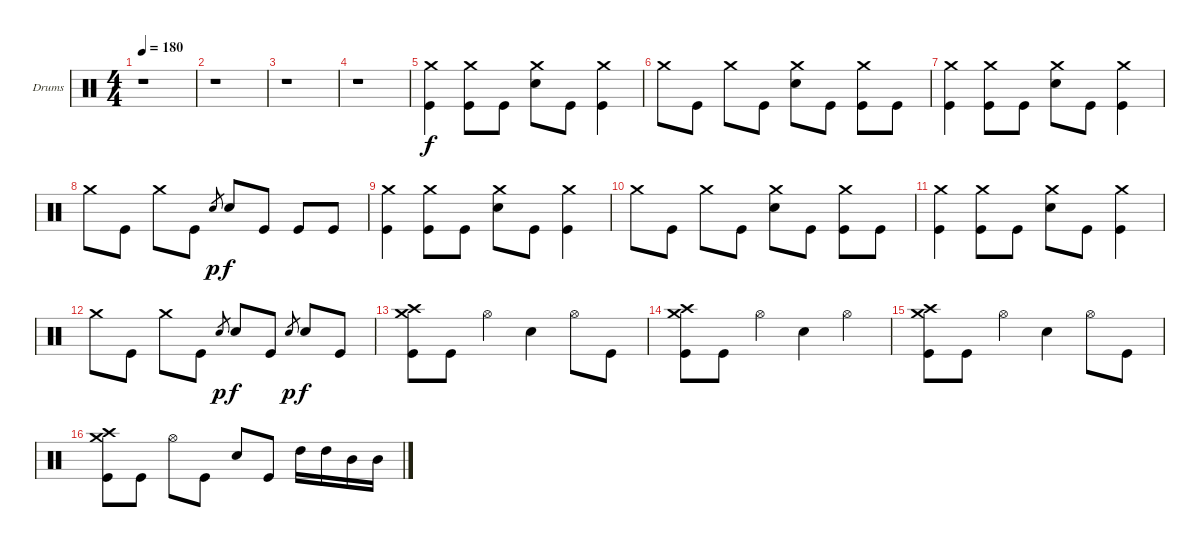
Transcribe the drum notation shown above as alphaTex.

\defaultSystemsLayout 4
\bracketExtendMode groupsimilarinstruments
\firstSystemTrackNameOrientation horizontal
\otherSystemsTrackNameOrientation horizontal
\track ("Барабаны" "Drums") {instrument percussion}
\staff {score}
\articulation defaults
\ts (4 4)
\tempo 180
\clef neutral
\scale
0.474178
\ks c
r.1{dy f} |
\scale
0.262911 r.1 |
\scale
0.262911 r.1 |
\scale
0.333333 r.1 |
\scale
0.333333 ("Crash medium (hit)" "Kick (hit)").4 ("Crash medium (hit)" "Kick (hit)").8 "Kick (hit)".8 ("Crash medium (hit)" "Snare (hit) 2").8 "Kick (hit)".8 ("Crash medium (hit)" "Kick (hit)").4 |
\scale
0.333333 "Crash medium (hit)".8 "Kick (hit)".8 "Crash medium (hit)".8 "Kick (hit)".8 ("Crash medium (hit)" "Snare (hit) 2").8 "Kick (hit)".8 ("Crash medium (hit)" "Kick (hit)").8 "Kick (hit)".8 |
\scale
0.333333 ("Crash medium (hit)" "Kick (hit)").4 ("Crash medium (hit)" "Kick (hit)").8 "Kick (hit)".8 ("Crash medium (hit)" "Snare (hit) 2").8 "Kick (hit)".8 ("Crash medium (hit)" "Kick (hit)").4 |
\scale
0.333333 "Crash medium (hit)".8 "Kick (hit)".8 "Crash medium (hit)".8 "Kick (hit)".8 "Snare (hit) 2".8{gr dy p} "Snare (hit) 2".8{dy f} "Kick (hit)".8 "Kick (hit)".8 "Kick (hit)".8 |
\scale
0.333333 ("Crash medium (hit)" "Kick (hit)").4 ("Crash medium (hit)" "Kick (hit)").8 "Kick (hit)".8 ("Crash medium (hit)" "Snare (hit) 2").8 "Kick (hit)".8 ("Crash medium (hit)" "Kick (hit)").4 |
\scale
0.333333 "Crash medium (hit)".8 "Kick (hit)".8 "Crash medium (hit)".8 "Kick (hit)".8 ("Crash medium (hit)" "Snare (hit) 2").8 "Kick (hit)".8 ("Crash medium (hit)" "Kick (hit)").8 "Kick (hit)".8 |
\scale
0.333333 ("Crash medium (hit)" "Kick (hit)").4 ("Crash medium (hit)" "Kick (hit)").8 "Kick (hit)".8 ("Crash medium (hit)" "Snare (hit) 2").8 "Kick (hit)".8 ("Crash medium (hit)" "Kick (hit)").4 |
\scale
0.333333 "Crash medium (hit)".8 "Kick (hit)".8 "Crash medium (hit)".8 "Kick (hit)".8 "Snare (hit) 2".8{gr dy p} "Snare (hit) 2".8{dy f} "Kick (hit)".8 "Snare (hit) 2".8{gr dy p} "Snare (hit) 2".8{dy f} "Kick (hit)".8 |
\scale
0.333333 ("Crash medium (hit)" "Crash high (hit)" "Kick (hit)").8 "Kick (hit)".8 "Hi-Hat (open)".4 "Snare (hit) 2".4 "Hi-Hat (open)".8 "Kick (hit)".8 |
\scale
0.333333 ("Crash medium (hit)" "Crash high (hit)" "Kick (hit)").8 "Kick (hit)".8 "Hi-Hat (open)".4 "Snare (hit) 2".4 "Hi-Hat (open)".4 |
\scale
0.333333 ("Crash medium (hit)" "Crash high (hit)" "Kick (hit)").8 "Kick (hit)".8 "Hi-Hat (open)".4 "Snare (hit) 2".4 "Hi-Hat (open)".8 "Kick (hit)".8 |
\scale
0.333333 ("Crash high (hit)" "Crash medium (hit)" "Kick (hit)").8 "Kick (hit)".8 "Hi-Hat (open)".8 "Kick (hit)".8 "Snare (hit) 2".8 "Kick (hit)".8 "High Tom (hit)".16 "High Tom (hit)".16 "Mid Tom (hit)".16 "Mid Tom (hit)".16
